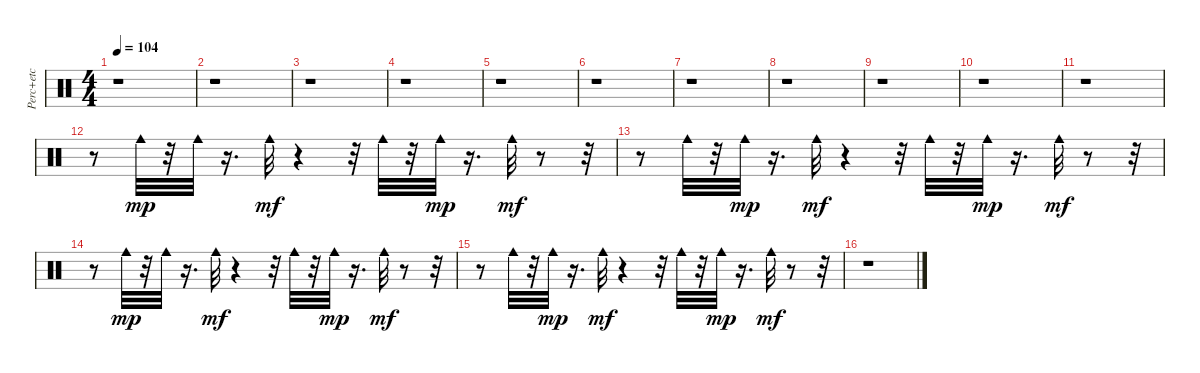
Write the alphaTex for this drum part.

\track ("Perc+etc" "Perc+etc") {instrument percussion}
\staff {score}
\articulation defaults
\ts (4 4)
\tempo 104
\clef neutral
\ks c
r.1{dy mf} |
r.1 |
r.1 |
r.1 |
r.1 |
r.1 |
r.1 |
r.1 |
r.1 |
r.1 |
r.1 |
r.8 "Cowbell medium (hit)".32{dy mp} r.32 "Cowbell medium (hit)".32 r.16{d} "Cowbell medium (hit)".32{dy mf} r.4 r.32 "Cowbell medium (hit)".32 r.32 "Cowbell medium (hit)".32{dy mp} r.16{d} "Cowbell medium (hit)".32{dy mf} r.8 r.32 |
r.8 "Cowbell medium (hit)".32 r.32 "Cowbell medium (hit)".32{dy mp} r.16{d} "Cowbell medium (hit)".32{dy mf} r.4 r.32 "Cowbell medium (hit)".32 r.32 "Cowbell medium (hit)".32{dy mp} r.16{d} "Cowbell medium (hit)".32{dy mf} r.8 r.32 |
r.8 "Cowbell medium (hit)".32{dy mp} r.32 "Cowbell medium (hit)".32 r.16{d} "Cowbell medium (hit)".32{dy mf} r.4 r.32 "Cowbell medium (hit)".32 r.32 "Cowbell medium (hit)".32{dy mp} r.16{d} "Cowbell medium (hit)".32{dy mf} r.8 r.32 |
r.8 "Cowbell medium (hit)".32 r.32 "Cowbell medium (hit)".32{dy mp} r.16{d} "Cowbell medium (hit)".32{dy mf} r.4 r.32 "Cowbell medium (hit)".32 r.32 "Cowbell medium (hit)".32{dy mp} r.16{d} "Cowbell medium (hit)".32{dy mf} r.8 r.32 |
r.1
